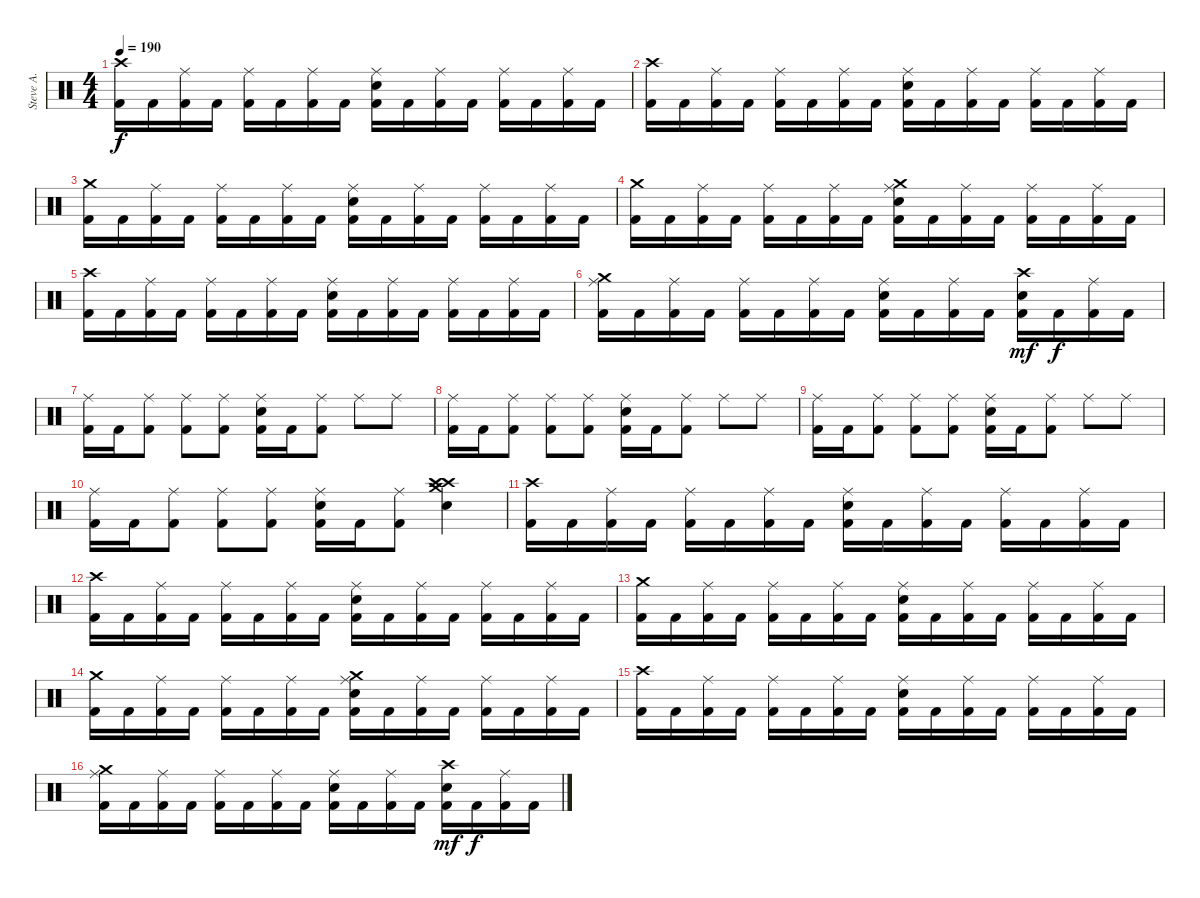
\track ("Steve A." "Steve A.") {instrument percussion}
\staff {score}
\articulation defaults
\ts (4 4)
\tempo 190
\clef neutral
\ks c
("Kick (hit) 2" "Crash high (hit)").16{dy f} "Kick (hit) 2".16 ("Kick (hit) 2" "Ride (middle)").16 "Kick (hit) 2".16 ("Kick (hit) 2" "Ride (middle)").16 "Kick (hit) 2".16 ("Kick (hit) 2" "Ride (middle)").16 "Kick (hit) 2".16 ("Kick (hit) 2" "Ride (middle)" "Electric Snare (hit)").16 "Kick (hit) 2".16 ("Kick (hit) 2" "Ride (middle)").16 "Kick (hit) 2".16 ("Kick (hit) 2" "Ride (middle)").16 "Kick (hit) 2".16 ("Kick (hit) 2" "Ride (middle)").16 "Kick (hit) 2".16 |
("Kick (hit) 2" "Crash high (hit)").16 "Kick (hit) 2".16 ("Kick (hit) 2" "Ride (middle)").16 "Kick (hit) 2".16 ("Kick (hit) 2" "Ride (middle)").16 "Kick (hit) 2".16 ("Kick (hit) 2" "Ride (middle)").16 "Kick (hit) 2".16 ("Kick (hit) 2" "Ride (middle)" "Electric Snare (hit)").16 "Kick (hit) 2".16 ("Kick (hit) 2" "Ride (middle)").16 "Kick (hit) 2".16 ("Kick (hit) 2" "Ride (middle)").16 "Kick (hit) 2".16 ("Kick (hit) 2" "Ride (middle)").16 "Kick (hit) 2".16 |
("Kick (hit) 2" "Crash medium (hit)").16 "Kick (hit) 2".16 ("Kick (hit) 2" "Ride (middle)").16 "Kick (hit) 2".16 ("Kick (hit) 2" "Ride (middle)").16 "Kick (hit) 2".16 ("Kick (hit) 2" "Ride (middle)").16 "Kick (hit) 2".16 ("Kick (hit) 2" "Ride (middle)" "Electric Snare (hit)").16 "Kick (hit) 2".16 ("Kick (hit) 2" "Ride (middle)").16 "Kick (hit) 2".16 ("Kick (hit) 2" "Ride (middle)").16 "Kick (hit) 2".16 ("Kick (hit) 2" "Ride (middle)").16 "Kick (hit) 2".16 |
("Kick (hit) 2" "Crash medium (hit)").16 "Kick (hit) 2".16 ("Kick (hit) 2" "Ride (middle)").16 "Kick (hit) 2".16 ("Kick (hit) 2" "Ride (middle)").16 "Kick (hit) 2".16 ("Kick (hit) 2" "Ride (middle)").16 "Kick (hit) 2".16 ("Kick (hit) 2" "Ride (middle)" "Electric Snare (hit)" "Crash medium (hit)").16 "Kick (hit) 2".16 ("Kick (hit) 2" "Ride (middle)").16 "Kick (hit) 2".16 ("Kick (hit) 2" "Ride (middle)").16 "Kick (hit) 2".16 ("Kick (hit) 2" "Ride (middle)").16 "Kick (hit) 2".16 |
("Kick (hit) 2" "Crash high (hit)").16 "Kick (hit) 2".16 ("Kick (hit) 2" "Ride (middle)").16 "Kick (hit) 2".16 ("Kick (hit) 2" "Ride (middle)").16 "Kick (hit) 2".16 ("Kick (hit) 2" "Ride (middle)").16 "Kick (hit) 2".16 ("Kick (hit) 2" "Ride (middle)" "Electric Snare (hit)").16 "Kick (hit) 2".16 ("Kick (hit) 2" "Ride (middle)").16 "Kick (hit) 2".16 ("Kick (hit) 2" "Ride (middle)").16 "Kick (hit) 2".16 ("Kick (hit) 2" "Ride (middle)").16 "Kick (hit) 2".16 |
("Kick (hit) 2" "Ride (middle)" "Crash medium (hit)").16 "Kick (hit) 2".16 ("Kick (hit) 2" "Ride (middle)").16 "Kick (hit) 2".16 ("Kick (hit) 2" "Ride (middle)").16 "Kick (hit) 2".16 ("Kick (hit) 2" "Ride (middle)").16 "Kick (hit) 2".16 ("Kick (hit) 2" "Ride (middle)" "Electric Snare (hit)").16 "Kick (hit) 2".16 ("Kick (hit) 2" "Ride (middle)").16 "Kick (hit) 2".16 ("Kick (hit) 2" "Crash high (hit)" "Electric Snare (hit)").16{dy mf} "Kick (hit) 2".16{dy f} ("Kick (hit) 2" "Ride (middle)").16 "Kick (hit) 2".16 |
("Kick (hit) 2" "Ride (middle)").16 "Kick (hit) 2".16 ("Kick (hit) 2" "Ride (middle)").8 ("Kick (hit) 2" "Ride (middle)").8 ("Kick (hit) 2" "Ride (middle)").8 ("Kick (hit) 2" "Ride (middle)" "Electric Snare (hit)").16 "Kick (hit) 2".16 ("Kick (hit) 2" "Ride (middle)").8 "Ride (middle)".8 "Ride (middle)".8 |
("Kick (hit) 2" "Ride (middle)").16 "Kick (hit) 2".16 ("Kick (hit) 2" "Ride (middle)").8 ("Kick (hit) 2" "Ride (middle)").8 ("Kick (hit) 2" "Ride (middle)").8 ("Kick (hit) 2" "Ride (middle)" "Electric Snare (hit)").16 "Kick (hit) 2".16 ("Kick (hit) 2" "Ride (middle)").8 "Ride (middle)".8 "Ride (middle)".8 |
("Kick (hit) 2" "Ride (middle)").16 "Kick (hit) 2".16 ("Kick (hit) 2" "Ride (middle)").8 ("Kick (hit) 2" "Ride (middle)").8 ("Kick (hit) 2" "Ride (middle)").8 ("Kick (hit) 2" "Ride (middle)" "Electric Snare (hit)").16 "Kick (hit) 2".16 ("Kick (hit) 2" "Ride (middle)").8 "Ride (middle)".8 "Ride (middle)".8 |
("Kick (hit) 2" "Ride (middle)").16 "Kick (hit) 2".16 ("Kick (hit) 2" "Ride (middle)").8 ("Kick (hit) 2" "Ride (middle)").8 ("Kick (hit) 2" "Ride (middle)").8 ("Kick (hit) 2" "Ride (middle)" "Electric Snare (hit)").16 "Kick (hit) 2".16 ("Kick (hit) 2" "Ride (middle)").8 ("Crash high (hit)" "Crash medium (hit)" "Electric Snare (hit)" "Crash high (hit)").4 |
("Kick (hit) 2" "Crash high (hit)").16 "Kick (hit) 2".16 ("Kick (hit) 2" "Ride (middle)").16 "Kick (hit) 2".16 ("Kick (hit) 2" "Ride (middle)").16 "Kick (hit) 2".16 ("Kick (hit) 2" "Ride (middle)").16 "Kick (hit) 2".16 ("Kick (hit) 2" "Ride (middle)" "Electric Snare (hit)").16 "Kick (hit) 2".16 ("Kick (hit) 2" "Ride (middle)").16 "Kick (hit) 2".16 ("Kick (hit) 2" "Ride (middle)").16 "Kick (hit) 2".16 ("Kick (hit) 2" "Ride (middle)").16 "Kick (hit) 2".16 |
("Kick (hit) 2" "Crash high (hit)").16 "Kick (hit) 2".16 ("Kick (hit) 2" "Ride (middle)").16 "Kick (hit) 2".16 ("Kick (hit) 2" "Ride (middle)").16 "Kick (hit) 2".16 ("Kick (hit) 2" "Ride (middle)").16 "Kick (hit) 2".16 ("Kick (hit) 2" "Ride (middle)" "Electric Snare (hit)").16 "Kick (hit) 2".16 ("Kick (hit) 2" "Ride (middle)").16 "Kick (hit) 2".16 ("Kick (hit) 2" "Ride (middle)").16 "Kick (hit) 2".16 ("Kick (hit) 2" "Ride (middle)").16 "Kick (hit) 2".16 |
("Kick (hit) 2" "Crash medium (hit)").16 "Kick (hit) 2".16 ("Kick (hit) 2" "Ride (middle)").16 "Kick (hit) 2".16 ("Kick (hit) 2" "Ride (middle)").16 "Kick (hit) 2".16 ("Kick (hit) 2" "Ride (middle)").16 "Kick (hit) 2".16 ("Kick (hit) 2" "Ride (middle)" "Electric Snare (hit)").16 "Kick (hit) 2".16 ("Kick (hit) 2" "Ride (middle)").16 "Kick (hit) 2".16 ("Kick (hit) 2" "Ride (middle)").16 "Kick (hit) 2".16 ("Kick (hit) 2" "Ride (middle)").16 "Kick (hit) 2".16 |
("Kick (hit) 2" "Crash medium (hit)").16 "Kick (hit) 2".16 ("Kick (hit) 2" "Ride (middle)").16 "Kick (hit) 2".16 ("Kick (hit) 2" "Ride (middle)").16 "Kick (hit) 2".16 ("Kick (hit) 2" "Ride (middle)").16 "Kick (hit) 2".16 ("Kick (hit) 2" "Ride (middle)" "Electric Snare (hit)" "Crash medium (hit)").16 "Kick (hit) 2".16 ("Kick (hit) 2" "Ride (middle)").16 "Kick (hit) 2".16 ("Kick (hit) 2" "Ride (middle)").16 "Kick (hit) 2".16 ("Kick (hit) 2" "Ride (middle)").16 "Kick (hit) 2".16 |
("Kick (hit) 2" "Crash high (hit)").16 "Kick (hit) 2".16 ("Kick (hit) 2" "Ride (middle)").16 "Kick (hit) 2".16 ("Kick (hit) 2" "Ride (middle)").16 "Kick (hit) 2".16 ("Kick (hit) 2" "Ride (middle)").16 "Kick (hit) 2".16 ("Kick (hit) 2" "Ride (middle)" "Electric Snare (hit)").16 "Kick (hit) 2".16 ("Kick (hit) 2" "Ride (middle)").16 "Kick (hit) 2".16 ("Kick (hit) 2" "Ride (middle)").16 "Kick (hit) 2".16 ("Kick (hit) 2" "Ride (middle)").16 "Kick (hit) 2".16 |
("Kick (hit) 2" "Ride (middle)" "Crash medium (hit)").16 "Kick (hit) 2".16 ("Kick (hit) 2" "Ride (middle)").16 "Kick (hit) 2".16 ("Kick (hit) 2" "Ride (middle)").16 "Kick (hit) 2".16 ("Kick (hit) 2" "Ride (middle)").16 "Kick (hit) 2".16 ("Kick (hit) 2" "Ride (middle)" "Electric Snare (hit)").16 "Kick (hit) 2".16 ("Kick (hit) 2" "Ride (middle)").16 "Kick (hit) 2".16 ("Kick (hit) 2" "Crash high (hit)" "Electric Snare (hit)").16{dy mf} "Kick (hit) 2".16{dy f} ("Kick (hit) 2" "Ride (middle)").16 "Kick (hit) 2".16
